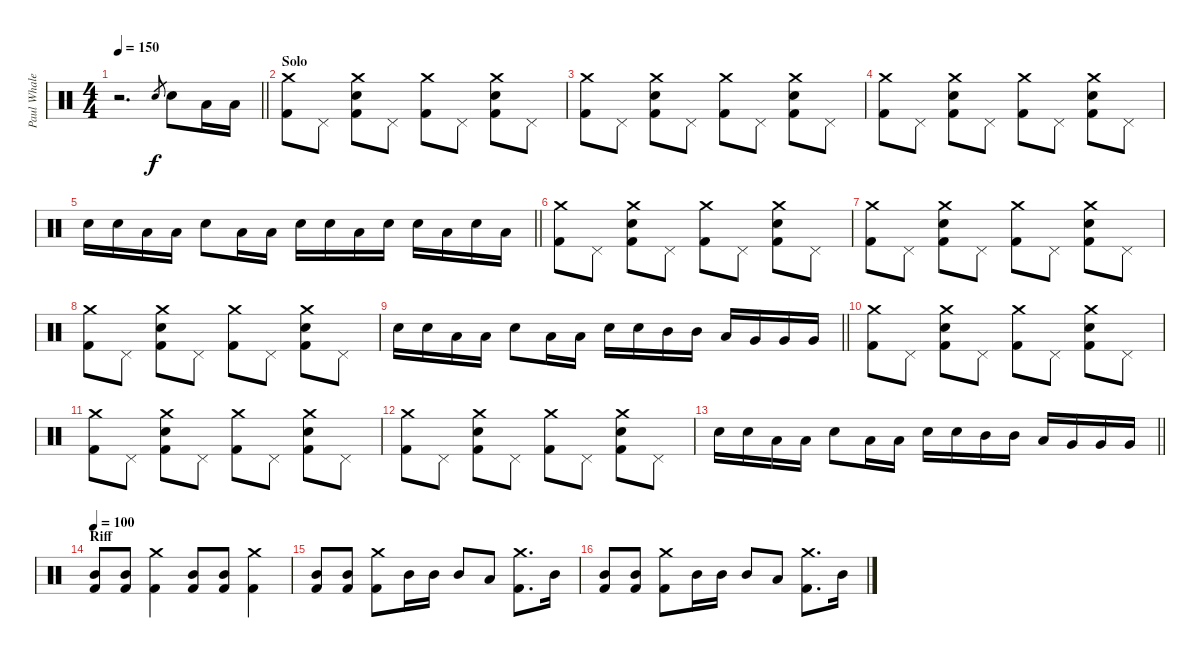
\track ("Paul Whaley" "Paul Whale") {instrument percussion}
\staff {score}
\articulation defaults
\ts (4 4)
\tempo 150
\clef neutral
\barLineRight lightlight
\ks c
r.2{d dy f} "Snare (hit) 2".8{gr} "Snare (hit) 2".8 "Low Tom (hit)".16 "Low Tom (hit)".16 |
\section ("" "Solo")
("Kick (hit) 2" "Crash medium (hit)").8 "Pedal Hi-Hat (hit)".8 ("Kick (hit) 2" "Snare (hit) 2" "Crash medium (hit)").8 "Pedal Hi-Hat (hit)".8 ("Kick (hit) 2" "Crash medium (hit)").8 "Pedal Hi-Hat (hit)".8 ("Kick (hit) 2" "Snare (hit) 2" "Crash medium (hit)").8 "Pedal Hi-Hat (hit)".8 |
("Kick (hit) 2" "Crash medium (hit)").8 "Pedal Hi-Hat (hit)".8 ("Kick (hit) 2" "Snare (hit) 2" "Crash medium (hit)").8 "Pedal Hi-Hat (hit)".8 ("Kick (hit) 2" "Crash medium (hit)").8 "Pedal Hi-Hat (hit)".8 ("Kick (hit) 2" "Snare (hit) 2" "Crash medium (hit)").8 "Pedal Hi-Hat (hit)".8 |
("Kick (hit) 2" "Crash medium (hit)").8 "Pedal Hi-Hat (hit)".8 ("Kick (hit) 2" "Snare (hit) 2" "Crash medium (hit)").8 "Pedal Hi-Hat (hit)".8 ("Kick (hit) 2" "Crash medium (hit)").8 "Pedal Hi-Hat (hit)".8 ("Kick (hit) 2" "Snare (hit) 2" "Crash medium (hit)").8 "Pedal Hi-Hat (hit)".8 |
\barLineRight lightlight "Snare (hit) 2".16 "Snare (hit) 2".16 "Low Tom (hit)".16 "Low Tom (hit)".16 "Snare (hit) 2".8 "Low Tom (hit)".16 "Low Tom (hit)".16 "Snare (hit) 2".16 "Snare (hit) 2".16 "Low Tom (hit)".16 "Snare (hit) 2".16 "Snare (hit) 2".16 "Low Tom (hit)".16 "Snare (hit) 2".16 "Low Tom (hit)".16
|
("Kick (hit) 2" "Crash medium (hit)").8 "Pedal Hi-Hat (hit)".8 ("Kick (hit) 2" "Snare (hit) 2" "Crash medium (hit)").8 "Pedal Hi-Hat (hit)".8 ("Kick (hit) 2" "Crash medium (hit)").8 "Pedal Hi-Hat (hit)".8 ("Kick (hit) 2" "Snare (hit) 2" "Crash medium (hit)").8 "Pedal Hi-Hat (hit)".8 |
("Kick (hit) 2" "Crash medium (hit)").8 "Pedal Hi-Hat (hit)".8 ("Kick (hit) 2" "Snare (hit) 2" "Crash medium (hit)").8 "Pedal Hi-Hat (hit)".8 ("Kick (hit) 2" "Crash medium (hit)").8 "Pedal Hi-Hat (hit)".8 ("Kick (hit) 2" "Snare (hit) 2" "Crash medium (hit)").8 "Pedal Hi-Hat (hit)".8 |
("Kick (hit) 2" "Crash medium (hit)").8 "Pedal Hi-Hat (hit)".8 ("Kick (hit) 2" "Snare (hit) 2" "Crash medium (hit)").8 "Pedal Hi-Hat (hit)".8 ("Kick (hit) 2" "Crash medium (hit)").8 "Pedal Hi-Hat (hit)".8 ("Kick (hit) 2" "Snare (hit) 2" "Crash medium (hit)").8 "Pedal Hi-Hat (hit)".8 |
\barLineRight lightlight "Snare (hit) 2".16 "Snare (hit) 2".16 "Low Tom (hit)".16 "Low Tom (hit)".16 "Snare (hit) 2".8 "Low Tom (hit)".16 "Low Tom (hit)".16 "Snare (hit) 2".16 "Snare (hit) 2".16 "Mid Tom (hit)".16 "Mid Tom (hit)".16 "Low Tom (hit)".16 "Very Low Tom (hit)".16 "Very Low Tom (hit)".16 "Very Low Tom (hit)".16
|
("Kick (hit) 2" "Crash medium (hit)").8 "Pedal Hi-Hat (hit)".8 ("Kick (hit) 2" "Snare (hit) 2" "Crash medium (hit)").8 "Pedal Hi-Hat (hit)".8 ("Kick (hit) 2" "Crash medium (hit)").8 "Pedal Hi-Hat (hit)".8 ("Kick (hit) 2" "Snare (hit) 2" "Crash medium (hit)").8 "Pedal Hi-Hat (hit)".8 |
("Kick (hit) 2" "Crash medium (hit)").8 "Pedal Hi-Hat (hit)".8 ("Kick (hit) 2" "Snare (hit) 2" "Crash medium (hit)").8 "Pedal Hi-Hat (hit)".8 ("Kick (hit) 2" "Crash medium (hit)").8 "Pedal Hi-Hat (hit)".8 ("Kick (hit) 2" "Snare (hit) 2" "Crash medium (hit)").8 "Pedal Hi-Hat (hit)".8 |
("Kick (hit) 2" "Crash medium (hit)").8 "Pedal Hi-Hat (hit)".8 ("Kick (hit) 2" "Snare (hit) 2" "Crash medium (hit)").8 "Pedal Hi-Hat (hit)".8 ("Kick (hit) 2" "Crash medium (hit)").8 "Pedal Hi-Hat (hit)".8 ("Kick (hit) 2" "Snare (hit) 2" "Crash medium (hit)").8 "Pedal Hi-Hat (hit)".8 |
\barLineRight lightlight "Snare (hit) 2".16 "Snare (hit) 2".16 "Low Tom (hit)".16 "Low Tom (hit)".16 "Snare (hit) 2".8 "Low Tom (hit)".16 "Low Tom (hit)".16 "Snare (hit) 2".16 "Snare (hit) 2".16 "Mid Tom (hit)".16 "Mid Tom (hit)".16 "Low Tom (hit)".16 "Very Low Tom (hit)".16 "Very Low Tom (hit)".16 "Very Low Tom (hit)".16
|
\section ("" "Riff")
\tempo 100
("Kick (hit) 2" "Mid Tom (hit)").8 ("Kick (hit) 2" "Mid Tom (hit)").8 ("Kick (hit) 2" "Crash medium (hit)").4 ("Kick (hit) 2" "Mid Tom (hit)").8 ("Kick (hit) 2" "Mid Tom (hit)").8 ("Kick (hit) 2" "Crash medium (hit)").4 |
("Kick (hit) 2" "Mid Tom (hit)").8 ("Kick (hit) 2" "Mid Tom (hit)").8 ("Kick (hit) 2" "Crash medium (hit)").8 "Mid Tom (hit)".16 "Mid Tom (hit)".16 "Mid Tom (hit)".8 "Low Tom (hit)".8 ("Kick (hit) 2" "Crash medium (hit)").8{d} "Mid Tom (hit)".16 |
("Kick (hit) 2" "Mid Tom (hit)").8 ("Kick (hit) 2" "Mid Tom (hit)").8 ("Kick (hit) 2" "Crash medium (hit)").8 "Mid Tom (hit)".16 "Mid Tom (hit)".16 "Mid Tom (hit)".8 "Low Tom (hit)".8 ("Kick (hit) 2" "Crash medium (hit)").8{d} "Mid Tom (hit)".16
